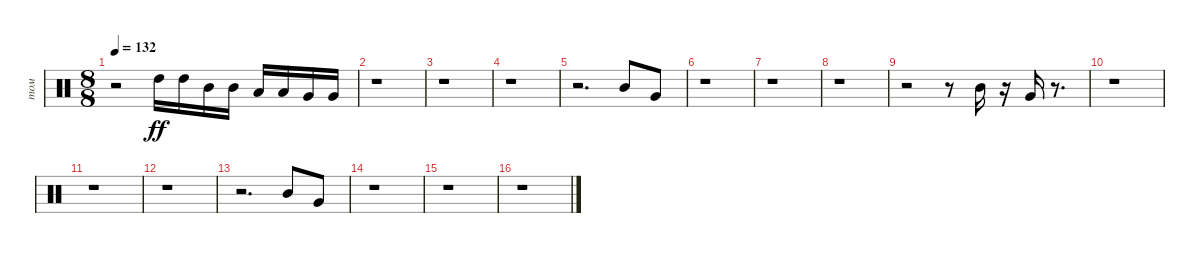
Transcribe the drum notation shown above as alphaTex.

\track ("том" "том") {instrument percussion}
\staff {score}
\articulation defaults
\ts (8 8)
\tempo 132
\clef neutral
\ks c
r.2{dy ff} "High Tom (hit)".16 "High Tom (hit)".16 "Mid Tom (hit)".16 "Mid Tom (hit)".16 "Low Tom (hit)".16 "Low Tom (hit)".16 "Very Low Tom (hit)".16 "Very Low Tom (hit)".16 |
r.1 |
r.1 |
r.1 |
r.2{d} "Mid Tom (hit)".8 "Very Low Tom (hit)".8 |
r.1 |
r.1 |
r.1 |
r.2 r.8 "Mid Tom (hit)".16 r.16 "Very Low Tom (hit)".16 r.8{d} |
r.1 |
r.1 |
r.1 |
r.2{d} "Mid Tom (hit)".8 "Very Low Tom (hit)".8 |
r.1 |
r.1 |
r.1
